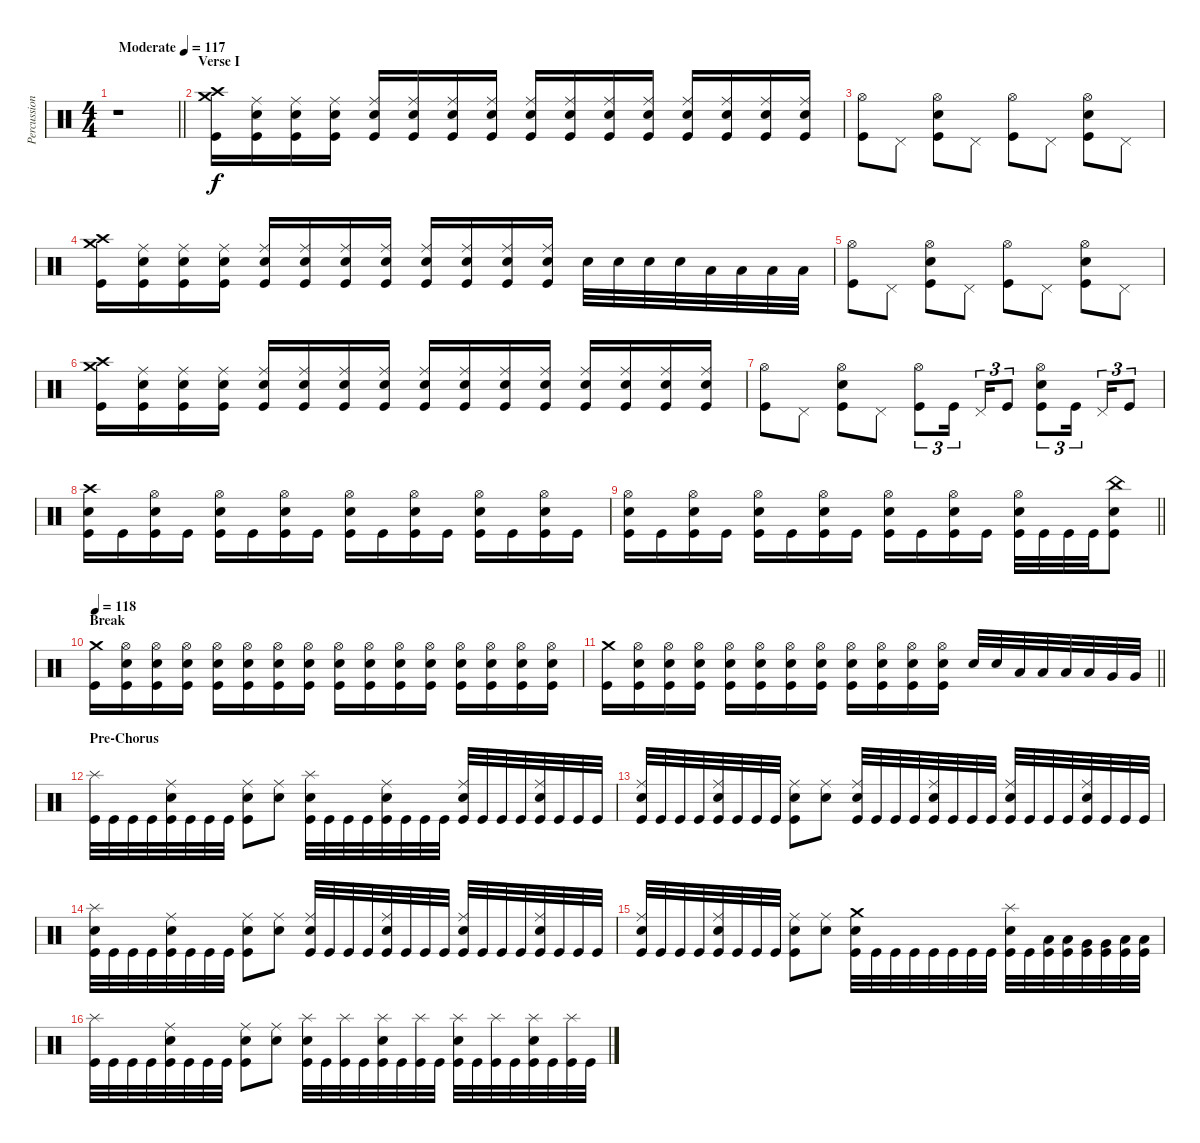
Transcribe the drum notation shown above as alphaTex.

\track ("Percussion" "Percussion") {instrument percussion}
\staff {score}
\articulation defaults
\ts (4 4)
\tempo (117 "Moderate")
\clef neutral
\barLineRight lightlight
\ks c
r.1{dy f} |
\section ("" "Verse I")
("Crash medium (hit)" "Crash high (hit)" "Kick (hit)").16 ("Ride (middle)" "Electric Snare (hit)" "Kick (hit)").16 ("Ride (middle)" "Electric Snare (hit)" "Kick (hit)").16 ("Ride (middle)" "Electric Snare (hit)" "Kick (hit)").16 ("Ride (middle)" "Electric Snare (hit)" "Kick (hit)").16 ("Ride (middle)" "Electric Snare (hit)" "Kick (hit)").16 ("Ride (middle)" "Electric Snare (hit)" "Kick (hit)").16 ("Ride (middle)" "Electric Snare (hit)" "Kick (hit)").16 ("Ride (middle)" "Electric Snare (hit)" "Kick (hit)").16 ("Ride (middle)" "Electric Snare (hit)" "Kick (hit)").16 ("Ride (middle)" "Electric Snare (hit)" "Kick (hit)").16 ("Ride (middle)" "Electric Snare (hit)" "Kick (hit)").16 ("Ride (middle)" "Electric Snare (hit)" "Kick (hit)").16 ("Ride (middle)" "Electric Snare (hit)" "Kick (hit)").16 ("Ride (middle)" "Electric Snare (hit)" "Kick (hit)").16 ("Ride (middle)" "Electric Snare (hit)" "Kick (hit)").16 |
("Hi-Hat (open)" "Kick (hit)").8 "Pedal Hi-Hat (hit)".8 ("Hi-Hat (open)" "Electric Snare (hit)" "Kick (hit)").8 "Pedal Hi-Hat (hit)".8 ("Hi-Hat (open)" "Kick (hit)").8 "Pedal Hi-Hat (hit)".8 ("Hi-Hat (open)" "Electric Snare (hit)" "Kick (hit)").8 "Pedal Hi-Hat (hit)".8 |
("Crash medium (hit)" "Crash high (hit)" "Kick (hit)").16 ("Ride (middle)" "Electric Snare (hit)" "Kick (hit)").16 ("Ride (middle)" "Electric Snare (hit)" "Kick (hit)").16 ("Ride (middle)" "Electric Snare (hit)" "Kick (hit)").16 ("Ride (middle)" "Electric Snare (hit)" "Kick (hit)").16 ("Ride (middle)" "Electric Snare (hit)" "Kick (hit)").16 ("Ride (middle)" "Electric Snare (hit)" "Kick (hit)").16 ("Ride (middle)" "Electric Snare (hit)" "Kick (hit)").16 ("Ride (middle)" "Electric Snare (hit)" "Kick (hit)").16 ("Ride (middle)" "Electric Snare (hit)" "Kick (hit)").16 ("Ride (middle)" "Electric Snare (hit)" "Kick (hit)").16 ("Ride (middle)" "Electric Snare (hit)" "Kick (hit)").16 "Electric Snare (hit)".32 "Electric Snare (hit)".32 "Electric Snare (hit)".32 "Electric Snare (hit)".32 "Low Tom (hit)".32 "Low Tom (hit)".32 "Low Tom (hit)".32 "Low Tom (hit)".32 |
("Hi-Hat (open)" "Kick (hit)").8 "Pedal Hi-Hat (hit)".8 ("Hi-Hat (open)" "Electric Snare (hit)" "Kick (hit)").8 "Pedal Hi-Hat (hit)".8 ("Hi-Hat (open)" "Kick (hit)").8 "Pedal Hi-Hat (hit)".8 ("Hi-Hat (open)" "Electric Snare (hit)" "Kick (hit)").8 "Pedal Hi-Hat (hit)".8 |
("Crash medium (hit)" "Crash high (hit)" "Kick (hit)").16 ("Ride (middle)" "Electric Snare (hit)" "Kick (hit)").16 ("Ride (middle)" "Electric Snare (hit)" "Kick (hit)").16 ("Ride (middle)" "Electric Snare (hit)" "Kick (hit)").16 ("Ride (middle)" "Electric Snare (hit)" "Kick (hit)").16 ("Ride (middle)" "Electric Snare (hit)" "Kick (hit)").16 ("Ride (middle)" "Electric Snare (hit)" "Kick (hit)").16 ("Ride (middle)" "Electric Snare (hit)" "Kick (hit)").16 ("Ride (middle)" "Electric Snare (hit)" "Kick (hit)").16 ("Ride (middle)" "Electric Snare (hit)" "Kick (hit)").16 ("Ride (middle)" "Electric Snare (hit)" "Kick (hit)").16 ("Ride (middle)" "Electric Snare (hit)" "Kick (hit)").16 ("Ride (middle)" "Electric Snare (hit)" "Kick (hit)").16 ("Ride (middle)" "Electric Snare (hit)" "Kick (hit)").16 ("Ride (middle)" "Electric Snare (hit)" "Kick (hit)").16 ("Ride (middle)" "Electric Snare (hit)" "Kick (hit)").16 |
("Hi-Hat (open)" "Kick (hit)").8 "Pedal Hi-Hat (hit)".8 ("Hi-Hat (open)" "Electric Snare (hit)" "Kick (hit)").8 "Pedal Hi-Hat (hit)".8 ("Hi-Hat (open)" "Kick (hit)").8{tu (3 2)} "Kick (hit)".16{tu (3 2) beam splitsecondary} "Pedal Hi-Hat (hit)".16{tu (3 2)} "Kick (hit)".8{tu (3 2)} ("Hi-Hat (open)" "Electric Snare (hit)" "Kick (hit)").8{tu (3 2)} "Kick (hit)".16{tu (3 2) beam splitsecondary} "Pedal Hi-Hat (hit)".16{tu (3 2)} "Kick (hit)".8{tu (3 2)} |
("Crash high (hit)" "Electric Snare (hit)" "Kick (hit)").16 "Kick (hit)".16 ("Hi-Hat (open)" "Electric Snare (hit)" "Kick (hit)").16 "Kick (hit)".16 ("Hi-Hat (open)" "Electric Snare (hit)" "Kick (hit)").16 "Kick (hit)".16 ("Hi-Hat (open)" "Electric Snare (hit)" "Kick (hit)").16 "Kick (hit)".16 ("Hi-Hat (open)" "Electric Snare (hit)" "Kick (hit)").16 "Kick (hit)".16 ("Hi-Hat (open)" "Electric Snare (hit)" "Kick (hit)").16 "Kick (hit)".16 ("Hi-Hat (open)" "Electric Snare (hit)" "Kick (hit)").16 "Kick (hit)".16 ("Hi-Hat (open)" "Electric Snare (hit)" "Kick (hit)").16 "Kick (hit)".16 |
\barLineRight lightlight
("Hi-Hat (open)" "Electric Snare (hit)" "Kick (hit)").16 "Kick (hit)".16 ("Hi-Hat (open)" "Electric Snare (hit)" "Kick (hit)").16 "Kick (hit)".16 ("Hi-Hat (open)" "Electric Snare (hit)" "Kick (hit)").16 "Kick (hit)".16 ("Hi-Hat (open)" "Electric Snare (hit)" "Kick (hit)").16 "Kick (hit)".16 ("Hi-Hat (open)" "Electric Snare (hit)" "Kick (hit)").16 "Kick (hit)".16 ("Hi-Hat (open)" "Electric Snare (hit)" "Kick (hit)").16 "Kick (hit)".16 ("Hi-Hat (open)" "Electric Snare (hit)" "Kick (hit)").32 "Kick (hit)".32 "Kick (hit)".32 "Kick (hit)".32 ("China (hit)" "Electric Snare (hit)" "Kick (hit)").8 |
\section ("" "Break")
\tempo 118
("Crash medium (hit)" "Kick (hit)").16 ("Hi-Hat (open)" "Electric Snare (hit)" "Kick (hit)").16 ("Hi-Hat (open)" "Electric Snare (hit)" "Kick (hit)").16 ("Hi-Hat (open)" "Electric Snare (hit)" "Kick (hit)").16 ("Hi-Hat (open)" "Electric Snare (hit)" "Kick (hit)").16 ("Hi-Hat (open)" "Electric Snare (hit)" "Kick (hit)").16 ("Hi-Hat (open)" "Electric Snare (hit)" "Kick (hit)").16 ("Hi-Hat (open)" "Electric Snare (hit)" "Kick (hit)").16 ("Hi-Hat (open)" "Electric Snare (hit)" "Kick (hit)").16 ("Hi-Hat (open)" "Electric Snare (hit)" "Kick (hit)").16 ("Hi-Hat (open)" "Electric Snare (hit)" "Kick (hit)").16 ("Hi-Hat (open)" "Electric Snare (hit)" "Kick (hit)").16 ("Hi-Hat (open)" "Electric Snare (hit)" "Kick (hit)").16 ("Hi-Hat (open)" "Electric Snare (hit)" "Kick (hit)").16 ("Hi-Hat (open)" "Electric Snare (hit)" "Kick (hit)").16 ("Hi-Hat (open)" "Electric Snare (hit)" "Kick (hit)").16 |
\barLineRight lightlight
("Crash medium (hit)" "Kick (hit)").16 ("Hi-Hat (open)" "Electric Snare (hit)" "Kick (hit)").16 ("Hi-Hat (open)" "Electric Snare (hit)" "Kick (hit)").16 ("Hi-Hat (open)" "Electric Snare (hit)" "Kick (hit)").16 ("Hi-Hat (open)" "Electric Snare (hit)" "Kick (hit)").16 ("Hi-Hat (open)" "Electric Snare (hit)" "Kick (hit)").16 ("Hi-Hat (open)" "Electric Snare (hit)" "Kick (hit)").16 ("Hi-Hat (open)" "Electric Snare (hit)" "Kick (hit)").16 ("Hi-Hat (open)" "Electric Snare (hit)" "Kick (hit)").16 ("Hi-Hat (open)" "Electric Snare (hit)" "Kick (hit)").16 ("Hi-Hat (open)" "Electric Snare (hit)" "Kick (hit)").16 ("Hi-Hat (open)" "Electric Snare (hit)" "Kick (hit)").16 "Electric Snare (hit)".32 "Electric Snare (hit)".32 "Low Tom (hit)".32 "Low Tom (hit)".32 "Low Tom (hit)".32 "Low Tom (hit)".32 "Very Low Tom (hit)".32 "Very Low Tom (hit)".32 |
\section ("" "Pre-Chorus")
("Splash (hit)" "Kick (hit)").32 "Kick (hit)".32 "Kick (hit)".32 "Kick (hit)".32 ("Ride (middle)" "Electric Snare (hit)" "Kick (hit)").32 "Kick (hit)".32 "Kick (hit)".32 "Kick (hit)".32 ("Ride (middle)" "Electric Snare (hit)" "Kick (hit)").8 ("Ride (middle)" "Electric Snare (hit)").8 ("Splash (hit)" "Electric Snare (hit)" "Kick (hit)").32 "Kick (hit)".32 "Kick (hit)".32 "Kick (hit)".32 ("Ride (middle)" "Electric Snare (hit)" "Kick (hit)").32 "Kick (hit)".32 "Kick (hit)".32 "Kick (hit)".32 ("Ride (middle)" "Electric Snare (hit)" "Kick (hit)").32 "Kick (hit)".32 "Kick (hit)".32 "Kick (hit)".32 ("Ride (middle)" "Electric Snare (hit)" "Kick (hit)").32 "Kick (hit)".32 "Kick (hit)".32 "Kick (hit)".32 |
("Ride (middle)" "Electric Snare (hit)" "Kick (hit)").32 "Kick (hit)".32 "Kick (hit)".32 "Kick (hit)".32 ("Ride (middle)" "Electric Snare (hit)" "Kick (hit)").32 "Kick (hit)".32 "Kick (hit)".32 "Kick (hit)".32 ("Ride (middle)" "Electric Snare (hit)" "Kick (hit)").8 ("Ride (middle)" "Electric Snare (hit)").8 ("Ride (middle)" "Electric Snare (hit)" "Kick (hit)").32 "Kick (hit)".32 "Kick (hit)".32 "Kick (hit)".32 ("Ride (middle)" "Electric Snare (hit)" "Kick (hit)").32 "Kick (hit)".32 "Kick (hit)".32 "Kick (hit)".32 ("Ride (middle)" "Electric Snare (hit)" "Kick (hit)").32 "Kick (hit)".32 "Kick (hit)".32 "Kick (hit)".32 ("Ride (middle)" "Electric Snare (hit)" "Kick (hit)").32 "Kick (hit)".32 "Kick (hit)".32 "Kick (hit)".32 |
("Splash (hit)" "Electric Snare (hit)" "Kick (hit)").32 "Kick (hit)".32 "Kick (hit)".32 "Kick (hit)".32 ("Ride (middle)" "Electric Snare (hit)" "Kick (hit)").32 "Kick (hit)".32 "Kick (hit)".32 "Kick (hit)".32 ("Ride (middle)" "Electric Snare (hit)" "Kick (hit)").8 ("Ride (middle)" "Electric Snare (hit)").8 ("Ride (middle)" "Electric Snare (hit)" "Kick (hit)").32 "Kick (hit)".32 "Kick (hit)".32 "Kick (hit)".32 ("Ride (middle)" "Electric Snare (hit)" "Kick (hit)").32 "Kick (hit)".32 "Kick (hit)".32 "Kick (hit)".32 ("Ride (middle)" "Electric Snare (hit)" "Kick (hit)").32 "Kick (hit)".32 "Kick (hit)".32 "Kick (hit)".32 ("Ride (middle)" "Electric Snare (hit)" "Kick (hit)").32 "Kick (hit)".32 "Kick (hit)".32 "Kick (hit)".32 |
("Ride (middle)" "Electric Snare (hit)" "Kick (hit)").32 "Kick (hit)".32 "Kick (hit)".32 "Kick (hit)".32 ("Ride (middle)" "Electric Snare (hit)" "Kick (hit)").32 "Kick (hit)".32 "Kick (hit)".32 "Kick (hit)".32 ("Ride (middle)" "Electric Snare (hit)" "Kick (hit)").8 ("Ride (middle)" "Electric Snare (hit)").8 ("Crash medium (hit)" "Electric Snare (hit)" "Kick (hit)").32 "Kick (hit)".32 "Kick (hit)".32 "Kick (hit)".32 "Kick (hit)".32 "Kick (hit)".32 "Kick (hit)".32 "Kick (hit)".32 ("Splash (hit)" "Electric Snare (hit)" "Kick (hit)").32 "Kick (hit)".32 ("Low Tom (hit)" "Kick (hit)").32 ("Low Tom (hit)" "Kick (hit)").32 ("Very Low Tom (hit)" "Kick (hit)").32 ("Very Low Tom (hit)" "Kick (hit)").32 ("Low Floor Tom (hit)" "Kick (hit)").32 ("Low Floor Tom (hit)" "Kick (hit)").32 |
("Splash (hit)" "Kick (hit)").32 "Kick (hit)".32 "Kick (hit)".32 "Kick (hit)".32 ("Ride (middle)" "Electric Snare (hit)" "Kick (hit)").32 "Kick (hit)".32 "Kick (hit)".32 "Kick (hit)".32 ("Ride (middle)" "Electric Snare (hit)" "Kick (hit)").8 ("Ride (middle)" "Electric Snare (hit)").8 ("Splash (hit)" "Electric Snare (hit)" "Kick (hit)").32 "Kick (hit)".32 ("Splash (hit)" "Kick (hit)").32 "Kick (hit)".32 ("Splash (hit)" "Electric Snare (hit)" "Kick (hit)").32 "Kick (hit)".32 ("Splash (hit)" "Kick (hit)").32 "Kick (hit)".32 ("Splash (hit)" "Electric Snare (hit)" "Kick (hit)").32 "Kick (hit)".32 ("Splash (hit)" "Kick (hit)").32 "Kick (hit)".32 ("Splash (hit)" "Electric Snare (hit)" "Kick (hit)").32 "Kick (hit)".32 ("Splash (hit)" "Kick (hit)").32 "Kick (hit)".32
